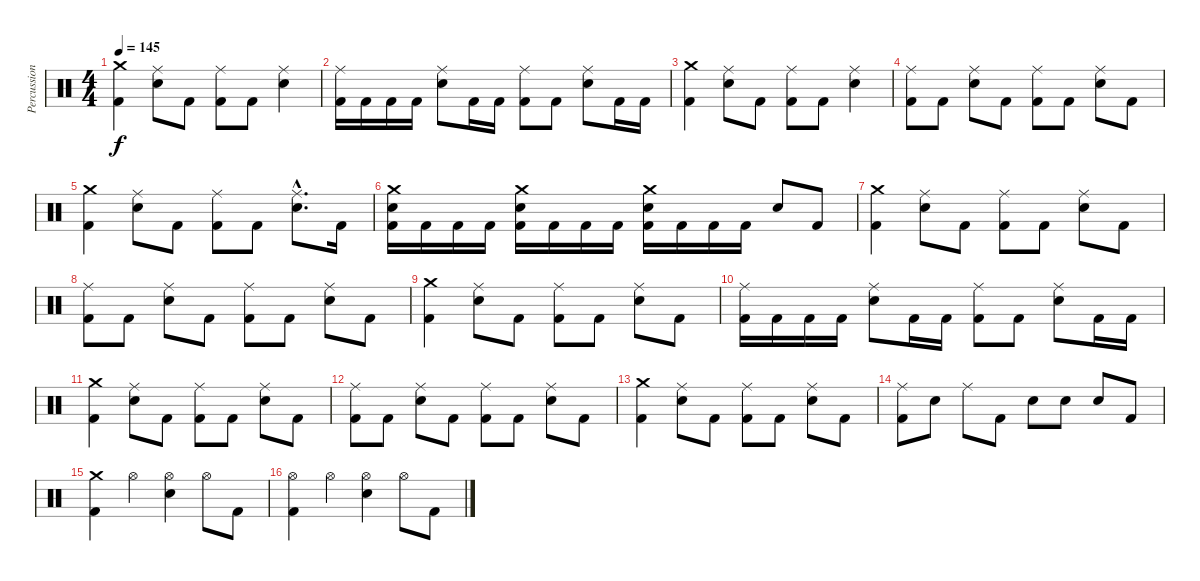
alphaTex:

\track ("Percussion" "Percussion") {instrument percussion}
\staff {score}
\articulation defaults
\ts (4 4)
\tempo 145
\clef neutral
\ks c
("Crash medium (hit)" "Kick (hit) 2").4{dy f} ("Ride (middle)" "Snare (hit) 2").8 "Kick (hit) 2".8 ("Ride (middle)" "Kick (hit) 2").8 "Kick (hit) 2".8 ("Ride (middle)" "Snare (hit) 2").4 |
("Ride (middle)" "Kick (hit) 2").16 "Kick (hit) 2".16 "Kick (hit) 2".16 "Kick (hit) 2".16 ("Ride (middle)" "Snare (hit) 2").8 "Kick (hit) 2".16 "Kick (hit) 2".16 ("Ride (middle)" "Kick (hit) 2").8 "Kick (hit) 2".8 ("Ride (middle)" "Snare (hit) 2").8 "Kick (hit) 2".16 "Kick (hit) 2".16 |
("Crash medium (hit)" "Kick (hit) 2").4 ("Ride (middle)" "Snare (hit) 2").8 "Kick (hit) 2".8 ("Ride (middle)" "Kick (hit) 2").8 "Kick (hit) 2".8 ("Ride (middle)" "Snare (hit) 2").4 |
("Ride (middle)" "Kick (hit) 2").8 "Kick (hit) 2".8 ("Ride (middle)" "Snare (hit) 2").8 "Kick (hit) 2".8 ("Ride (middle)" "Kick (hit) 2").8 "Kick (hit) 2".8 ("Ride (middle)" "Snare (hit) 2").8 "Kick (hit) 2".8 |
("Crash medium (hit)" "Kick (hit) 2").4 ("Ride (middle)" "Snare (hit) 2").8 "Kick (hit) 2".8 ("Ride (middle)" "Kick (hit) 2").8 "Kick (hit) 2".8 ("Ride (middle)"{hac} "Snare (hit) 2"{hac}).8{d} "Kick (hit) 2".16 |
("Crash medium (hit)" "Snare (hit) 2" "Kick (hit) 2").16 "Kick (hit) 2".16 "Kick (hit) 2".16 "Kick (hit) 2".16 ("Crash medium (hit)" "Snare (hit) 2" "Kick (hit) 2").16 "Kick (hit) 2".16 "Kick (hit) 2".16 "Kick (hit) 2".16 ("Crash medium (hit)" "Snare (hit) 2" "Kick (hit) 2").16 "Kick (hit) 2".16 "Kick (hit) 2".16 "Kick (hit) 2".16 "Snare (hit) 2".8 "Kick (hit) 2".8 |
("Crash medium (hit)" "Kick (hit) 2").4 ("Ride (middle)" "Snare (hit) 2").8 "Kick (hit) 2".8 ("Ride (middle)" "Kick (hit) 2").8 "Kick (hit) 2".8 ("Ride (middle)" "Snare (hit) 2").8 "Kick (hit) 2".8 |
("Ride (middle)" "Kick (hit) 2").8 "Kick (hit) 2".8 ("Ride (middle)" "Snare (hit) 2").8 "Kick (hit) 2".8 ("Ride (middle)" "Kick (hit) 2").8 "Kick (hit) 2".8 ("Ride (middle)" "Snare (hit) 2").8 "Kick (hit) 2".8 |
("Crash medium (hit)" "Kick (hit) 2").4 ("Ride (middle)" "Snare (hit) 2").8 "Kick (hit) 2".8 ("Ride (middle)" "Kick (hit) 2").8 "Kick (hit) 2".8 ("Ride (middle)" "Snare (hit) 2").8 "Kick (hit) 2".8 |
("Ride (middle)" "Kick (hit) 2").16 "Kick (hit) 2".16 "Kick (hit) 2".16 "Kick (hit) 2".16 ("Ride (middle)" "Snare (hit) 2").8 "Kick (hit) 2".16 "Kick (hit) 2".16 ("Ride (middle)" "Kick (hit) 2").8 "Kick (hit) 2".8 ("Ride (middle)" "Snare (hit) 2").8 "Kick (hit) 2".16 "Kick (hit) 2".16 |
("Crash medium (hit)" "Kick (hit) 2").4 ("Ride (middle)" "Snare (hit) 2").8 "Kick (hit) 2".8 ("Ride (middle)" "Kick (hit) 2").8 "Kick (hit) 2".8 ("Ride (middle)" "Snare (hit) 2").8 "Kick (hit) 2".8 |
("Ride (middle)" "Kick (hit) 2").8 "Kick (hit) 2".8 ("Ride (middle)" "Snare (hit) 2").8 "Kick (hit) 2".8 ("Ride (middle)" "Kick (hit) 2").8 "Kick (hit) 2".8 ("Ride (middle)" "Snare (hit) 2").8 "Kick (hit) 2".8 |
("Crash medium (hit)" "Kick (hit) 2").4 ("Ride (middle)" "Snare (hit) 2").8 "Kick (hit) 2".8 ("Ride (middle)" "Kick (hit) 2").8 "Kick (hit) 2".8 ("Ride (middle)" "Snare (hit) 2").8 "Kick (hit) 2".8 |
("Ride (middle)" "Kick (hit) 2").8 "Snare (hit) 2".8 "Ride (middle)".8 "Kick (hit) 2".8 "Snare (hit) 2".8 "Snare (hit) 2".8 "Snare (hit) 2".8 "Kick (hit) 2".8 |
("Crash medium (hit)" "Kick (hit) 2").4 "Hi-Hat (open)".4 ("Hi-Hat (open)" "Snare (hit) 2").4 "Hi-Hat (open)".8 "Kick (hit) 2".8 |
("Hi-Hat (open)" "Kick (hit) 2").4 "Hi-Hat (open)".4 ("Hi-Hat (open)" "Snare (hit) 2").4 "Hi-Hat (open)".8 "Kick (hit) 2".8
